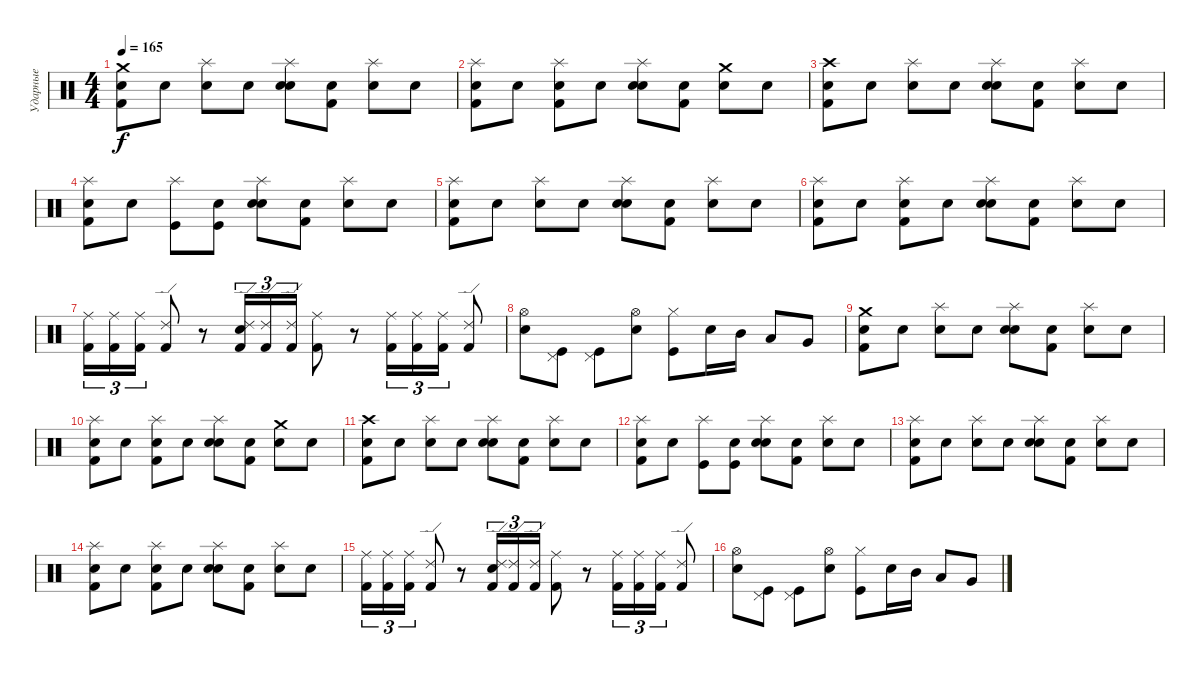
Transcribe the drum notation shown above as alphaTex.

\track ("Ударные" "Ударные") {instrument percussion}
\staff {score}
\articulation defaults
\ts (4 4)
\tempo 165
\clef neutral
\ks c
("Crash medium (hit)" "Kick (hit) 2" "Snare (hit)").8{dy f} "Snare (hit)".8 ("Splash (hit)" "Snare (hit)").8 "Snare (hit)".8 ("Snare (hit) 2" "Splash (hit)" "Snare (hit)").8 ("Kick (hit) 2" "Snare (hit)").8 ("Splash (hit)" "Snare (hit)").8 "Snare (hit)".8 |
("Splash (hit)" "Kick (hit) 2" "Snare (hit)").8 "Snare (hit)".8 ("Splash (hit)" "Kick (hit) 2" "Snare (hit)").8 "Snare (hit)".8 ("Snare (hit) 2" "Splash (hit)" "Snare (hit)").8 ("Kick (hit) 2" "Snare (hit)").8 ("Crash medium (hit)" "Snare (hit)").8 "Snare (hit)".8 |
("Crash high (hit)" "Kick (hit) 2" "Snare (hit)").8 "Snare (hit)".8 ("Splash (hit)" "Snare (hit)").8 "Snare (hit)".8 ("Snare (hit) 2" "Splash (hit)" "Snare (hit)").8 ("Kick (hit) 2" "Snare (hit)").8 ("Splash (hit)" "Snare (hit)").8 "Snare (hit)".8 |
("Splash (hit)" "Kick (hit) 2" "Snare (hit)").8 "Snare (hit)".8 ("Splash (hit)" "Kick (hit)").8 ("Kick (hit)" "Snare (hit)").8 ("Snare (hit) 2" "Splash (hit)" "Snare (hit)").8 ("Kick (hit) 2" "Snare (hit)").8 ("Splash (hit)" "Snare (hit)").8 "Snare (hit)".8 |
("Splash (hit)" "Kick (hit) 2" "Snare (hit)").8 "Snare (hit)".8 ("Splash (hit)" "Snare (hit)").8 "Snare (hit)".8 ("Snare (hit) 2" "Splash (hit)" "Snare (hit)").8 ("Kick (hit) 2" "Snare (hit)").8 ("Splash (hit)" "Snare (hit)").8 "Snare (hit)".8 |
("Splash (hit)" "Kick (hit) 2" "Snare (hit)").8 "Snare (hit)".8 ("Splash (hit)" "Kick (hit) 2" "Snare (hit)").8 "Snare (hit)".8 ("Snare (hit) 2" "Splash (hit)" "Snare (hit)").8 ("Kick (hit) 2" "Snare (hit)").8 ("Splash (hit)" "Snare (hit)").8 "Snare (hit)".8 |
("Ride (middle)" "Kick (hit) 2").16{tu (3 2)} ("Ride (middle)" "Kick (hit) 2").16{tu (3 2)} ("Ride (middle)" "Kick (hit) 2").16{tu (3 2)} ("Ride (edge) 2" "Kick (hit) 2").8 r.8 ("Snare (hit) 2" "Ride (edge) 2" "Kick (hit) 2").16{tu (3 2)} ("Ride (edge) 2" "Kick (hit) 2").16{tu (3 2)} ("Ride (edge) 2" "Kick (hit) 2").16{tu (3 2)} ("Ride (middle)" "Kick (hit) 2").8 r.8 ("Ride (middle)" "Kick (hit) 2").16{tu (3 2)} ("Ride (middle)" "Kick (hit) 2").16{tu (3 2)} ("Ride (middle)" "Kick (hit) 2").16{tu (3 2)} ("Ride (edge) 2" "Kick (hit) 2").8 |
("Snare (hit) 2" "Hi-Hat (open)").8 ("Pedal Hi-Hat (hit)" "Kick (hit)").8 ("Pedal Hi-Hat (hit)" "Kick (hit)").8 ("Snare (hit) 2" "Hi-Hat (open)").8 ("Hi-Hat (closed)" "Kick (hit)").8 "Snare (hit) 2".16 "Mid Tom (hit)".16 "Low Tom (hit)".8 "Very Low Tom (hit)".8 |
("Crash medium (hit)" "Kick (hit) 2" "Snare (hit)").8 "Snare (hit)".8 ("Splash (hit)" "Snare (hit)").8 "Snare (hit)".8 ("Snare (hit) 2" "Splash (hit)" "Snare (hit)").8 ("Kick (hit) 2" "Snare (hit)").8 ("Splash (hit)" "Snare (hit)").8 "Snare (hit)".8 |
("Splash (hit)" "Kick (hit) 2" "Snare (hit)").8 "Snare (hit)".8 ("Splash (hit)" "Kick (hit) 2" "Snare (hit)").8 "Snare (hit)".8 ("Snare (hit) 2" "Splash (hit)" "Snare (hit)").8 ("Kick (hit) 2" "Snare (hit)").8 ("Crash medium (hit)" "Snare (hit)").8 "Snare (hit)".8 |
("Crash high (hit)" "Kick (hit) 2" "Snare (hit)").8 "Snare (hit)".8 ("Splash (hit)" "Snare (hit)").8 "Snare (hit)".8 ("Snare (hit) 2" "Splash (hit)" "Snare (hit)").8 ("Kick (hit) 2" "Snare (hit)").8 ("Splash (hit)" "Snare (hit)").8 "Snare (hit)".8 |
("Splash (hit)" "Kick (hit) 2" "Snare (hit)").8 "Snare (hit)".8 ("Splash (hit)" "Kick (hit)").8 ("Kick (hit)" "Snare (hit)").8 ("Snare (hit) 2" "Splash (hit)" "Snare (hit)").8 ("Kick (hit) 2" "Snare (hit)").8 ("Splash (hit)" "Snare (hit)").8 "Snare (hit)".8 |
("Splash (hit)" "Kick (hit) 2" "Snare (hit)").8 "Snare (hit)".8 ("Splash (hit)" "Snare (hit)").8 "Snare (hit)".8 ("Snare (hit) 2" "Splash (hit)" "Snare (hit)").8 ("Kick (hit) 2" "Snare (hit)").8 ("Splash (hit)" "Snare (hit)").8 "Snare (hit)".8 |
("Splash (hit)" "Kick (hit) 2" "Snare (hit)").8 "Snare (hit)".8 ("Splash (hit)" "Kick (hit) 2" "Snare (hit)").8 "Snare (hit)".8 ("Snare (hit) 2" "Splash (hit)" "Snare (hit)").8 ("Kick (hit) 2" "Snare (hit)").8 ("Splash (hit)" "Snare (hit)").8 "Snare (hit)".8 |
("Ride (middle)" "Kick (hit) 2").16{tu (3 2)} ("Ride (middle)" "Kick (hit) 2").16{tu (3 2)} ("Ride (middle)" "Kick (hit) 2").16{tu (3 2)} ("Ride (edge) 2" "Kick (hit) 2").8 r.8 ("Snare (hit) 2" "Ride (edge) 2" "Kick (hit) 2").16{tu (3 2)} ("Ride (edge) 2" "Kick (hit) 2").16{tu (3 2)} ("Ride (edge) 2" "Kick (hit) 2").16{tu (3 2)} ("Ride (middle)" "Kick (hit) 2").8 r.8 ("Ride (middle)" "Kick (hit) 2").16{tu (3 2)} ("Ride (middle)" "Kick (hit) 2").16{tu (3 2)} ("Ride (middle)" "Kick (hit) 2").16{tu (3 2)} ("Ride (edge) 2" "Kick (hit) 2").8 |
("Snare (hit) 2" "Hi-Hat (open)").8 ("Pedal Hi-Hat (hit)" "Kick (hit)").8 ("Pedal Hi-Hat (hit)" "Kick (hit)").8 ("Snare (hit) 2" "Hi-Hat (open)").8 ("Hi-Hat (closed)" "Kick (hit)").8 "Snare (hit) 2".16 "Mid Tom (hit)".16 "Low Tom (hit)".8 "Very Low Tom (hit)".8
